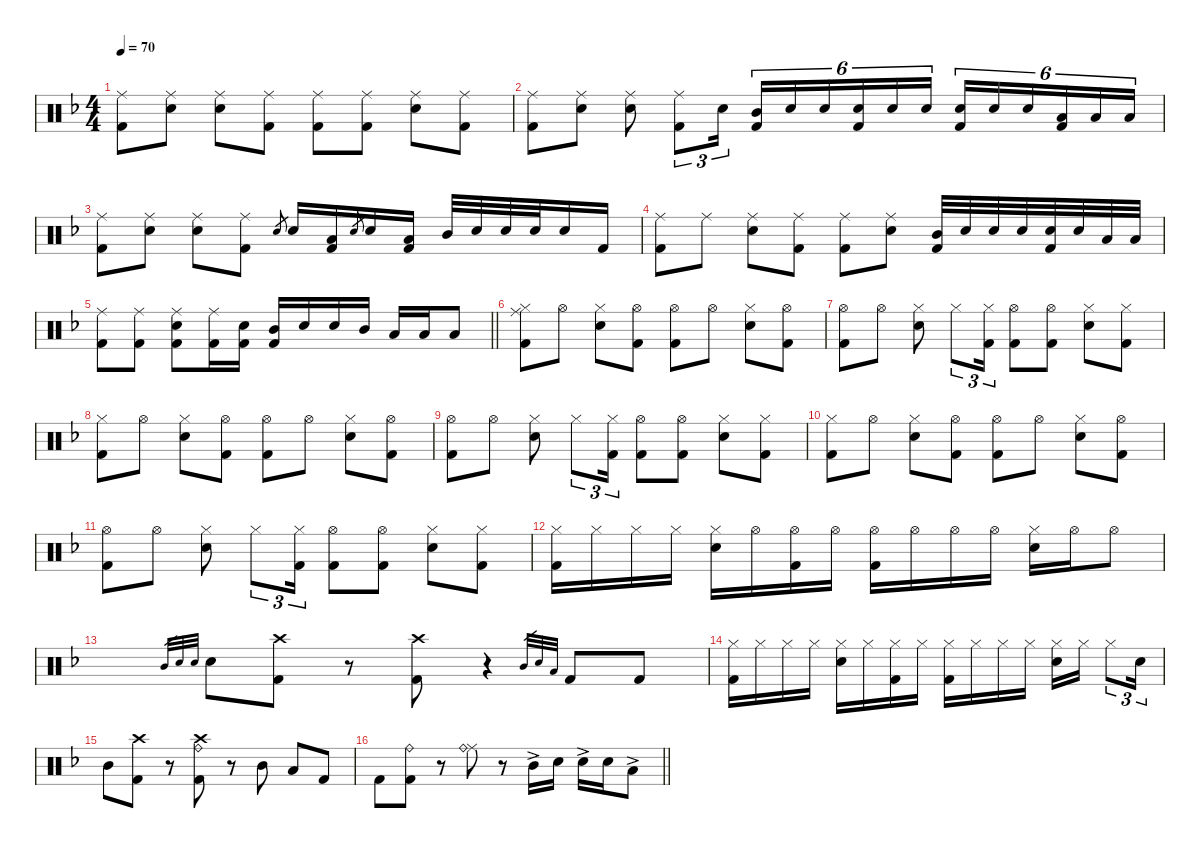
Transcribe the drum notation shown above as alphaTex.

\defaultSystemsLayout 4
\hideDynamics
\bracketExtendMode nobrackets
\singleTrackTrackNamePolicy hidden
\multiTrackTrackNamePolicy hidden
\otherSystemsTrackNameOrientation horizontal
\track ("Percussion" "drm.") {defaultSystemsLayout 4 instrument percussion}
\staff {score}
\articulation defaults
\ts (4 4)
\tempo 70
\clef neutral
\ks f
("Ride (middle)"{acc forcenatural} "Kick (hit) 2"{acc forcenatural}).8{dy f beam Down} ("Ride (middle)"{acc forcenatural} "Snare (hit) 2"{acc forcenatural}).8{beam Down} ("Ride (middle)"{acc forcenatural} "Snare (hit) 2"{acc forcenatural}).8{beam Down} ("Ride (middle)"{acc forcenatural} "Kick (hit) 2"{acc forcenatural}).8{beam Down} ("Ride (middle)"{acc forcenatural} "Kick (hit) 2"{acc forcenatural}).8{beam Down} ("Ride (middle)"{acc forcenatural} "Kick (hit) 2"{acc forcenatural}).8{beam Down} ("Ride (middle)"{acc forcenatural} "Snare (hit) 2"{acc forcenatural}).8{beam Down} ("Ride (middle)"{acc forcenatural} "Kick (hit) 2"{acc forcenatural}).8{beam Down} |
("Ride (middle)"{acc forcenatural} "Kick (hit) 2"{acc forcenatural}).8{beam Down} ("Ride (middle)"{acc forcenatural} "Snare (hit) 2"{acc forcenatural}).8{beam Down} ("Ride (middle)"{acc forcenatural} "Snare (hit) 2"{acc forcenatural}).8{beam Down} ("Ride (middle)"{acc forcenatural} "Kick (hit) 2"{acc forcenatural}).8{tu (3 2) beam Down} "Snare (hit) 2"{acc forcenatural}.16{tu (3 2) beam Down} ("Mid Tom (hit)"{acc forcenatural} "Kick (hit) 2"{acc forcenatural}).16{tu (6 4) beam Up} "Snare (hit) 2"{acc forcenatural}.16{tu (6 4) beam Up} "Snare (hit) 2"{acc forcenatural}.16{tu (6 4) beam Up} ("Snare (hit) 2"{acc forcenatural} "Kick (hit) 2"{acc forcenatural}).16{tu (6 4) beam Up} "Snare (hit) 2"{acc forcenatural}.16{tu (6 4) beam Up} "Snare (hit) 2"{acc forcenatural}.16{tu (6 4) beam Up} ("Snare (hit) 2"{acc forcenatural} "Kick (hit) 2"{acc forcenatural}).16{tu (6 4) beam Up} "Snare (hit) 2"{acc forcenatural}.16{tu (6 4) beam Up} "Snare (hit) 2"{acc forcenatural}.16{tu (6 4) beam Up} ("Low Tom (hit)"{acc forcenatural} "Kick (hit) 2"{acc forcenatural}).16{tu (6 4) beam Up} "Low Tom (hit)"{acc forcenatural}.16{tu (6 4) beam Up} "Low Floor Tom (hit)"{acc forcenatural}.16{tu (6 4) beam Up} |
("Ride (middle)"{acc forcenatural} "Kick (hit) 2"{acc forcenatural}).8{beam Down} ("Ride (middle)"{acc forcenatural} "Snare (hit) 2"{acc forcenatural}).8{beam Down} ("Ride (middle)"{acc forcenatural} "Snare (hit) 2"{acc forcenatural}).8{beam Down} ("Ride (middle)"{acc forcenatural} "Kick (hit) 2"{acc forcenatural}).8{beam Down} "Snare (hit) 2"{acc forcenatural}.8{gr dy mf beam Up} "Snare (hit) 2"{acc forcenatural}.16{dy f beam Up} ("Low Floor Tom (hit)"{acc forcenatural} "Kick (hit) 2"{acc forcenatural}).16{beam Up} "Snare (hit) 2"{acc forcenatural}.8{gr dy mf beam Up} "Snare (hit) 2"{acc forcenatural}.16{dy f beam Up} ("Low Floor Tom (hit)"{acc forcenatural} "Kick (hit) 2"{acc forcenatural}).16{beam Up} "Mid Tom (hit)"{acc forcenatural}.32{beam Up} "Snare (hit) 2"{acc forcenatural}.32{beam Up} "Snare (hit) 2"{acc forcenatural}.32{beam Up} "Snare (hit) 2"{acc forcenatural}.32{beam Up} "Snare (hit) 2"{acc forcenatural}.16{beam Up} "Kick (hit) 2"{acc forcenatural}.16{beam Up} |
("Ride (middle)"{acc forcenatural} "Kick (hit) 2"{acc forcenatural}).8{beam Down} "Ride (middle)"{acc forcenatural}.8{beam Down} ("Ride (middle)"{acc forcenatural} "Snare (hit) 2"{acc forcenatural}).8{beam Down} ("Ride (middle)"{acc forcenatural} "Kick (hit) 2"{acc forcenatural}).8{beam Down} ("Ride (middle)"{acc forcenatural} "Kick (hit) 2"{acc forcenatural}).8{beam Down} ("Ride (middle)"{acc forcenatural} "Snare (hit) 2"{acc forcenatural}).8{beam Down} ("Mid Tom (hit)"{acc forcenatural} "Kick (hit) 2"{acc forcenatural}).32{beam Up} "Snare (hit) 2"{acc forcenatural}.32{beam Up} "Snare (hit) 2"{acc forcenatural}.32{beam Up} "Snare (hit) 2"{acc forcenatural}.32{beam Up} ("Snare (hit) 2"{acc forcenatural} "Kick (hit) 2"{acc forcenatural}).32{beam Up} "Snare (hit) 2"{acc forcenatural}.32{beam Up} "Low Tom (hit)"{acc forcenatural}.32{beam Up} "Low Tom (hit)"{acc forcenatural}.32{beam Up} |
\barLineRight lightlight
("Ride (middle)"{acc forcenatural} "Kick (hit) 2"{acc forcenatural}).8{beam Down} ("Ride (middle)"{acc forcenatural} "Kick (hit) 2"{acc forcenatural}).8{beam Down} ("Ride (middle)"{acc forcenatural} "Kick (hit) 2"{acc forcenatural} "Snare (hit) 2"{acc forcenatural}).8{beam Down} ("Ride (middle)"{acc forcenatural} "Kick (hit) 2"{acc forcenatural}).16{beam Down} ("Snare (hit) 2"{acc forcenatural} "Kick (hit) 2"{acc forcenatural}).16{beam Down} ("Mid Tom (hit)"{acc forcenatural} "Kick (hit) 2"{acc forcenatural}).16{beam Up} "Snare (hit) 2"{acc forcenatural}.16{beam Up} "Snare (hit) 2"{acc forcenatural}.16{beam Up} "Mid Tom (hit)"{acc forcenatural}.16{beam Up} "Low Tom (hit)"{acc forcenatural}.16{beam Up} "Low Floor Tom (hit)"{acc forcenatural}.16{beam Up} "Low Floor Tom (hit)"{acc forcenatural}.8{beam Up} |
("Hi-Hat (closed)"{acc forcenatural} "Ride (middle)"{acc forcenatural} "Kick (hit) 2"{acc forcenatural}).8{beam Down} "Hi-Hat (open)"{acc forcenatural}.8{beam Down} ("Hi-Hat (closed)"{acc forcenatural} "Snare (hit) 2"{acc forcenatural}).8{beam Down} ("Hi-Hat (open)"{acc forcenatural} "Kick (hit) 2"{acc forcenatural}).8{beam Down} ("Hi-Hat (open)"{acc forcenatural} "Kick (hit) 2"{acc forcenatural}).8{beam Down} "Hi-Hat (open)"{acc forcenatural}.8{beam Down} ("Hi-Hat (closed)"{acc forcenatural} "Snare (hit) 2"{acc forcenatural}).8{beam Down} ("Hi-Hat (open)"{acc forcenatural} "Kick (hit) 2"{acc forcenatural}).8{beam Down} |
("Hi-Hat (open)"{acc forcenatural} "Kick (hit) 2"{acc forcenatural}).8{beam Down} "Hi-Hat (open)"{acc forcenatural}.8{beam Down} ("Hi-Hat (closed)"{acc forcenatural} "Snare (hit) 2"{acc forcenatural}).8{beam Down} "Hi-Hat (closed)"{acc forcenatural}.8{tu (3 2) beam Down} ("Hi-Hat (closed)"{acc forcenatural} "Kick (hit) 2"{acc forcenatural}).16{tu (3 2) beam Down} ("Hi-Hat (open)"{acc forcenatural} "Kick (hit) 2"{acc forcenatural}).8{beam Down} ("Hi-Hat (open)"{acc forcenatural} "Kick (hit) 2"{acc forcenatural}).8{beam Down} ("Hi-Hat (closed)"{acc forcenatural} "Snare (hit) 2"{acc forcenatural}).8{beam Down} ("Hi-Hat (closed)"{acc forcenatural} "Kick (hit) 2"{acc forcenatural}).8{beam Down} |
("Hi-Hat (closed)"{acc forcenatural} "Kick (hit) 2"{acc forcenatural}).8{beam Down} "Hi-Hat (open)"{acc forcenatural}.8{beam Down} ("Hi-Hat (closed)"{acc forcenatural} "Snare (hit) 2"{acc forcenatural}).8{beam Down} ("Hi-Hat (open)"{acc forcenatural} "Kick (hit) 2"{acc forcenatural}).8{beam Down} ("Hi-Hat (open)"{acc forcenatural} "Kick (hit) 2"{acc forcenatural}).8{beam Down} "Hi-Hat (open)"{acc forcenatural}.8{beam Down} ("Hi-Hat (closed)"{acc forcenatural} "Snare (hit) 2"{acc forcenatural}).8{beam Down} ("Hi-Hat (open)"{acc forcenatural} "Kick (hit) 2"{acc forcenatural}).8{beam Down} |
("Hi-Hat (open)"{acc forcenatural} "Kick (hit) 2"{acc forcenatural}).8{beam Down} "Hi-Hat (open)"{acc forcenatural}.8{beam Down} ("Hi-Hat (closed)"{acc forcenatural} "Snare (hit) 2"{acc forcenatural}).8{beam Down} "Hi-Hat (closed)"{acc forcenatural}.8{tu (3 2) beam Down} ("Hi-Hat (closed)"{acc forcenatural} "Kick (hit) 2"{acc forcenatural}).16{tu (3 2) beam Down} ("Hi-Hat (open)"{acc forcenatural} "Kick (hit) 2"{acc forcenatural}).8{beam Down} ("Hi-Hat (open)"{acc forcenatural} "Kick (hit) 2"{acc forcenatural}).8{beam Down} ("Hi-Hat (closed)"{acc forcenatural} "Snare (hit) 2"{acc forcenatural}).8{beam Down} ("Hi-Hat (closed)"{acc forcenatural} "Kick (hit) 2"{acc forcenatural}).8{beam Down} |
("Hi-Hat (closed)"{acc forcenatural} "Kick (hit) 2"{acc forcenatural}).8{beam Down} "Hi-Hat (open)"{acc forcenatural}.8{beam Down} ("Hi-Hat (closed)"{acc forcenatural} "Snare (hit) 2"{acc forcenatural}).8{beam Down} ("Hi-Hat (open)"{acc forcenatural} "Kick (hit) 2"{acc forcenatural}).8{beam Down} ("Hi-Hat (open)"{acc forcenatural} "Kick (hit) 2"{acc forcenatural}).8{beam Down} "Hi-Hat (open)"{acc forcenatural}.8{beam Down} ("Hi-Hat (closed)"{acc forcenatural} "Snare (hit) 2"{acc forcenatural}).8{beam Down} ("Hi-Hat (open)"{acc forcenatural} "Kick (hit) 2"{acc forcenatural}).8{beam Down} |
("Hi-Hat (open)"{acc forcenatural} "Kick (hit) 2"{acc forcenatural}).8{beam Down} "Hi-Hat (open)"{acc forcenatural}.8{beam Down} ("Hi-Hat (closed)"{acc forcenatural} "Snare (hit) 2"{acc forcenatural}).8{beam Down} "Hi-Hat (closed)"{acc forcenatural}.8{tu (3 2) beam Down} ("Hi-Hat (closed)"{acc forcenatural} "Kick (hit) 2"{acc forcenatural}).16{tu (3 2) beam Down} ("Hi-Hat (open)"{acc forcenatural} "Kick (hit) 2"{acc forcenatural}).8{beam Down} ("Hi-Hat (open)"{acc forcenatural} "Kick (hit) 2"{acc forcenatural}).8{beam Down} ("Hi-Hat (closed)"{acc forcenatural} "Snare (hit) 2"{acc forcenatural}).8{beam Down} ("Hi-Hat (closed)"{acc forcenatural} "Kick (hit) 2"{acc forcenatural}).8{beam Down} |
("Hi-Hat (closed)"{acc forcenatural} "Kick (hit) 2"{acc forcenatural}).16{beam Down} "Hi-Hat (closed)"{acc forcenatural}.16{beam Down} "Hi-Hat (closed)"{acc forcenatural}.16{beam Down} "Hi-Hat (closed)"{acc forcenatural}.16{beam Down} ("Hi-Hat (closed)"{acc forcenatural} "Snare (hit) 2"{acc forcenatural}).16{beam Down} "Hi-Hat (open)"{acc forcenatural}.16{beam Down} ("Hi-Hat (open)"{acc forcenatural} "Kick (hit) 2"{acc forcenatural}).16{beam Down} "Hi-Hat (open)"{acc forcenatural}.16{beam Down} ("Hi-Hat (open)"{acc forcenatural} "Kick (hit) 2"{acc forcenatural}).16{beam Down} "Hi-Hat (open)"{acc forcenatural}.16{beam Down} "Hi-Hat (open)"{acc forcenatural}.16{beam Down} "Hi-Hat (open)"{acc forcenatural}.16{beam Down} ("Hi-Hat (closed)"{acc forcenatural} "Snare (hit) 2"{acc forcenatural}).16{beam Down} "Hi-Hat (open)"{acc forcenatural}.16{beam Down} "Hi-Hat (open)"{acc forcenatural}.8{beam Down} |
"Mid Tom (hit)"{acc forcenatural}.32{gr dy pp beam Up} "Snare (hit) 2"{acc forcenatural}.32{gr beam Up} "Snare (hit) 2"{acc forcenatural}.32{gr beam Up} "Snare (hit) 2"{acc forcenatural}.8{dy f beam Down} ("Crash high (hit)"{acc forcenatural} "Kick (hit) 2"{acc forcenatural}).8{beam Down} r.8{beam Down} ("Crash high (hit)"{acc forcenatural} "Kick (hit) 2"{acc forcenatural}).8{beam Down} r.4{beam Down} "Mid Tom (hit)"{acc forcenatural}.32{gr dy pp beam Up} "Snare (hit) 2"{acc forcenatural}.32{gr beam Up} "Low Tom (hit)"{acc forcenatural}.32{gr beam Up} "Kick (hit) 2"{acc forcenatural}.8{dy f beam Up} "Kick (hit) 2"{acc forcenatural}.8{beam Up} |
("Hi-Hat (closed)"{acc forcenatural} "Kick (hit) 2"{acc forcenatural}).16{beam Down} "Hi-Hat (closed)"{acc forcenatural}.16{beam Down} "Hi-Hat (closed)"{acc forcenatural}.16{beam Down} "Hi-Hat (closed)"{acc forcenatural}.16{beam Down} ("Hi-Hat (closed)"{acc forcenatural} "Snare (hit) 2"{acc forcenatural}).16{beam Down} "Hi-Hat (closed)"{acc forcenatural}.16{beam Down} ("Hi-Hat (closed)"{acc forcenatural} "Kick (hit) 2"{acc forcenatural}).16{beam Down} "Hi-Hat (closed)"{acc forcenatural}.16{beam Down} ("Hi-Hat (closed)"{acc forcenatural} "Kick (hit) 2"{acc forcenatural}).16{beam Down} "Hi-Hat (closed)"{acc forcenatural}.16{beam Down} "Hi-Hat (closed)"{acc forcenatural}.16{beam Down} "Hi-Hat (closed)"{acc forcenatural}.16{beam Down} ("Hi-Hat (closed)"{acc forcenatural} "Snare (hit) 2"{acc forcenatural}).16{beam Down} "Hi-Hat (closed)"{acc forcenatural}.16{beam Down} "Hi-Hat (closed)"{acc forcenatural}.8{tu (3 2) beam Down} "Snare (hit) 2"{acc forcenatural}.16{tu (3 2) beam Down} |
"Mid Tom (hit)"{acc forcenatural}.8{beam Down} ("Crash high (hit)"{acc forcenatural} "Kick (hit) 2"{acc forcenatural}).8{beam Down} r.8{beam Down} ("Ride (bell)"{acc forcenatural} "Crash high (hit)"{acc forcenatural} "Kick (hit) 2"{acc forcenatural}).8{beam Down} r.8{beam Down} "Mid Tom (hit)"{acc forcenatural}.8{beam Down} "Low Tom (hit)"{acc forcenatural}.8{beam Up} "Kick (hit) 2"{acc forcenatural}.8{beam Up} |
\barLineRight lightlight "Kick (hit) 2"{acc forcenatural}.8{beam Down}
("Ride (bell)"{acc forcenatural} "Kick (hit) 2"{acc forcenatural}).8{beam Down} r.8{beam Down} ("Ride (middle)"{acc forcenatural} "Ride (bell)"{acc forcenatural}).8{beam Down} r.8{beam Down} "Mid Tom (hit)"{ac acc forcenatural}.16{beam Down} "Snare (hit) 2"{acc forcenatural}.16{beam Down} "Snare (hit) 2"{ac acc forcenatural}.16{beam Down} "Snare (hit) 2"{acc forcenatural}.16{beam Down} "Low Tom (hit)"{ac acc forcenatural}.8{beam Down}
